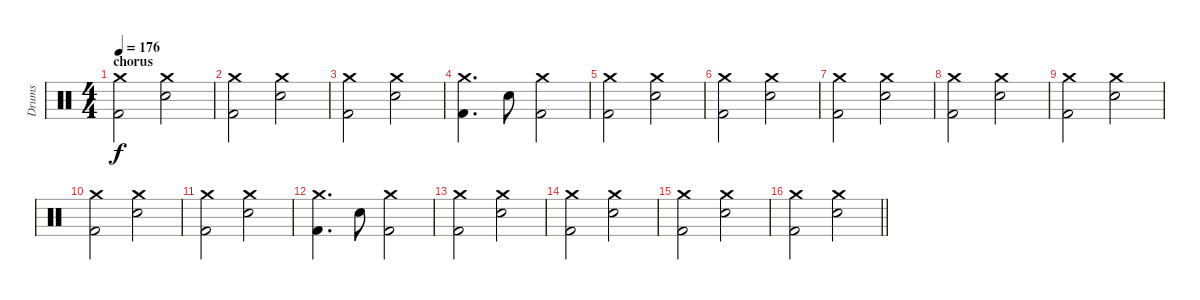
\track ("Drums" "Drums") {instrument percussion}
\staff {score}
\articulation defaults
\ts (4 4)
\section ("" "chorus")
\tempo 176
\clef neutral
\ks c
("Crash medium (hit)" "Kick (hit) 2").2{dy f} ("Crash medium (hit)" "Electric Snare (hit)").2 |
("Crash medium (hit)" "Kick (hit) 2").2 ("Crash medium (hit)" "Electric Snare (hit)").2 |
("Crash medium (hit)" "Kick (hit) 2").2 ("Crash medium (hit)" "Electric Snare (hit)").2 |
("Crash medium (hit)" "Kick (hit) 2").4{d} "Electric Snare (hit)".8 ("Crash medium (hit)" "Kick (hit) 2").2 |
("Crash medium (hit)" "Kick (hit) 2").2 ("Crash medium (hit)" "Electric Snare (hit)").2 |
("Crash medium (hit)" "Kick (hit) 2").2 ("Crash medium (hit)" "Electric Snare (hit)").2 |
("Crash medium (hit)" "Kick (hit) 2").2 ("Crash medium (hit)" "Electric Snare (hit)").2 |
("Crash medium (hit)" "Kick (hit) 2").2 ("Crash medium (hit)" "Electric Snare (hit)").2 |
("Crash medium (hit)" "Kick (hit) 2").2 ("Crash medium (hit)" "Electric Snare (hit)").2 |
("Crash medium (hit)" "Kick (hit) 2").2 ("Crash medium (hit)" "Electric Snare (hit)").2 |
("Crash medium (hit)" "Kick (hit) 2").2 ("Crash medium (hit)" "Electric Snare (hit)").2 |
("Crash medium (hit)" "Kick (hit) 2").4{d} "Electric Snare (hit)".8 ("Crash medium (hit)" "Kick (hit) 2").2 |
("Crash medium (hit)" "Kick (hit) 2").2 ("Crash medium (hit)" "Electric Snare (hit)").2 |
("Crash medium (hit)" "Kick (hit) 2").2 ("Crash medium (hit)" "Electric Snare (hit)").2 |
("Crash medium (hit)" "Kick (hit) 2").2 ("Crash medium (hit)" "Electric Snare (hit)").2 |
\barLineRight lightlight
("Crash medium (hit)" "Kick (hit) 2").2 ("Crash medium (hit)" "Electric Snare (hit)").2
